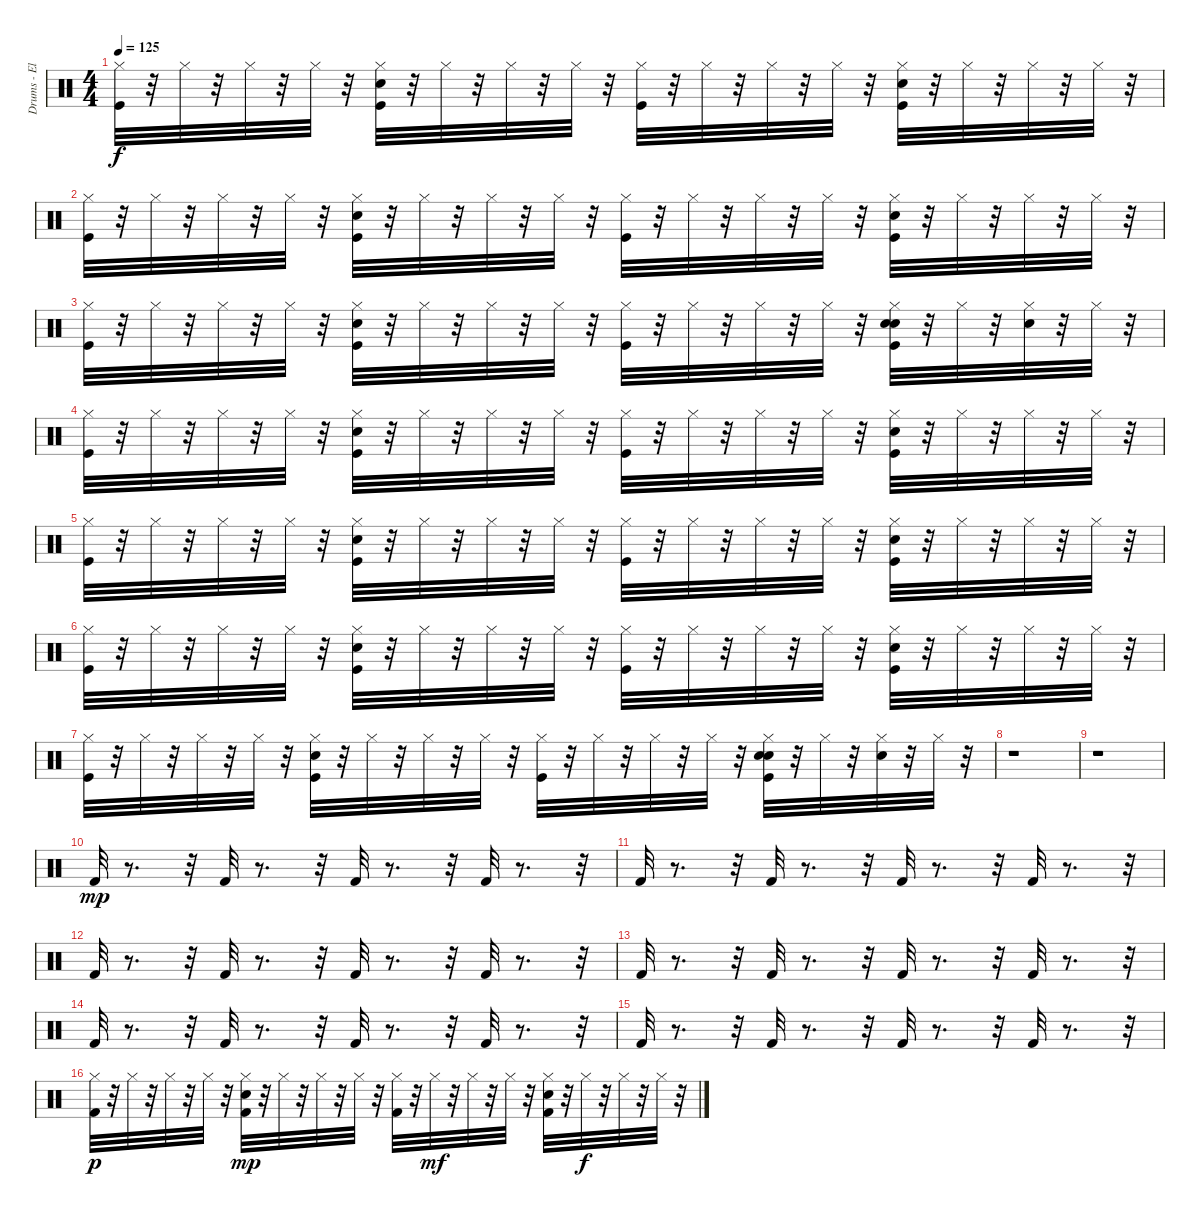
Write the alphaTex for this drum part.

\track ("Drums - El" "Drums - El") {instrument percussion}
\staff {score}
\articulation defaults
\ts (4 4)
\tempo 125
\clef neutral
\ks c
("Kick (hit)" "Hi-Hat (closed)").32{dy f} r.32 "Hi-Hat (closed)".32 r.32 "Hi-Hat (closed)".32 r.32 "Hi-Hat (closed)".32 r.32 ("Kick (hit)" "Electric Snare (hit)" "Hi-Hat (closed)").32 r.32 "Hi-Hat (closed)".32 r.32 "Hi-Hat (closed)".32 r.32 "Hi-Hat (closed)".32 r.32 ("Kick (hit)" "Hi-Hat (closed)").32 r.32 "Hi-Hat (closed)".32 r.32 "Hi-Hat (closed)".32 r.32 "Hi-Hat (closed)".32 r.32 ("Kick (hit)" "Electric Snare (hit)" "Hi-Hat (closed)").32 r.32 "Hi-Hat (closed)".32 r.32 "Hi-Hat (closed)".32 r.32 "Hi-Hat (closed)".32 r.32 |
("Kick (hit)" "Hi-Hat (closed)").32 r.32 "Hi-Hat (closed)".32 r.32 "Hi-Hat (closed)".32 r.32 "Hi-Hat (closed)".32 r.32 ("Kick (hit)" "Electric Snare (hit)" "Hi-Hat (closed)").32 r.32 "Hi-Hat (closed)".32 r.32 "Hi-Hat (closed)".32 r.32 "Hi-Hat (closed)".32 r.32 ("Kick (hit)" "Hi-Hat (closed)").32 r.32 "Hi-Hat (closed)".32 r.32 "Hi-Hat (closed)".32 r.32 "Hi-Hat (closed)".32 r.32 ("Kick (hit)" "Electric Snare (hit)" "Hi-Hat (closed)").32 r.32 "Hi-Hat (closed)".32 r.32 "Hi-Hat (closed)".32 r.32 "Hi-Hat (closed)".32 r.32 |
("Kick (hit)" "Hi-Hat (closed)").32 r.32 "Hi-Hat (closed)".32 r.32 "Hi-Hat (closed)".32 r.32 "Hi-Hat (closed)".32 r.32 ("Kick (hit)" "Electric Snare (hit)" "Hi-Hat (closed)").32 r.32 "Hi-Hat (closed)".32 r.32 "Hi-Hat (closed)".32 r.32 "Hi-Hat (closed)".32 r.32 ("Kick (hit)" "Hi-Hat (closed)").32 r.32 "Hi-Hat (closed)".32 r.32 "Hi-Hat (closed)".32 r.32 "Hi-Hat (closed)".32 r.32 ("Kick (hit)" "Electric Snare (hit)" "Hand Clap (hit)" "Hi-Hat (closed)").32 r.32 "Hi-Hat (closed)".32 r.32 ("Hand Clap (hit)" "Hi-Hat (closed)").32 r.32 "Hi-Hat (closed)".32 r.32 |
("Kick (hit)" "Hi-Hat (closed)").32 r.32 "Hi-Hat (closed)".32 r.32 "Hi-Hat (closed)".32 r.32 "Hi-Hat (closed)".32 r.32 ("Kick (hit)" "Electric Snare (hit)" "Hi-Hat (closed)").32 r.32 "Hi-Hat (closed)".32 r.32 "Hi-Hat (closed)".32 r.32 "Hi-Hat (closed)".32 r.32 ("Kick (hit)" "Hi-Hat (closed)").32 r.32 "Hi-Hat (closed)".32 r.32 "Hi-Hat (closed)".32 r.32 "Hi-Hat (closed)".32 r.32 ("Kick (hit)" "Electric Snare (hit)" "Hi-Hat (closed)").32 r.32 "Hi-Hat (closed)".32 r.32 "Hi-Hat (closed)".32 r.32 "Hi-Hat (closed)".32 r.32 |
("Kick (hit)" "Hi-Hat (closed)").32 r.32 "Hi-Hat (closed)".32 r.32 "Hi-Hat (closed)".32 r.32 "Hi-Hat (closed)".32 r.32 ("Kick (hit)" "Electric Snare (hit)" "Hi-Hat (closed)").32 r.32 "Hi-Hat (closed)".32 r.32 "Hi-Hat (closed)".32 r.32 "Hi-Hat (closed)".32 r.32 ("Kick (hit)" "Hi-Hat (closed)").32 r.32 "Hi-Hat (closed)".32 r.32 "Hi-Hat (closed)".32 r.32 "Hi-Hat (closed)".32 r.32 ("Kick (hit)" "Electric Snare (hit)" "Hi-Hat (closed)").32 r.32 "Hi-Hat (closed)".32 r.32 "Hi-Hat (closed)".32 r.32 "Hi-Hat (closed)".32 r.32 |
("Kick (hit)" "Hi-Hat (closed)").32 r.32 "Hi-Hat (closed)".32 r.32 "Hi-Hat (closed)".32 r.32 "Hi-Hat (closed)".32 r.32 ("Kick (hit)" "Electric Snare (hit)" "Hi-Hat (closed)").32 r.32 "Hi-Hat (closed)".32 r.32 "Hi-Hat (closed)".32 r.32 "Hi-Hat (closed)".32 r.32 ("Kick (hit)" "Hi-Hat (closed)").32 r.32 "Hi-Hat (closed)".32 r.32 "Hi-Hat (closed)".32 r.32 "Hi-Hat (closed)".32 r.32 ("Kick (hit)" "Electric Snare (hit)" "Hi-Hat (closed)").32 r.32 "Hi-Hat (closed)".32 r.32 "Hi-Hat (closed)".32 r.32 "Hi-Hat (closed)".32 r.32 |
("Kick (hit)" "Hi-Hat (closed)").32 r.32 "Hi-Hat (closed)".32 r.32 "Hi-Hat (closed)".32 r.32 "Hi-Hat (closed)".32 r.32 ("Kick (hit)" "Electric Snare (hit)" "Hi-Hat (closed)").32 r.32 "Hi-Hat (closed)".32 r.32 "Hi-Hat (closed)".32 r.32 "Hi-Hat (closed)".32 r.32 ("Kick (hit)" "Hi-Hat (closed)").32 r.32 "Hi-Hat (closed)".32 r.32 "Hi-Hat (closed)".32 r.32 "Hi-Hat (closed)".32 r.32 ("Kick (hit)" "Electric Snare (hit)" "Hand Clap (hit)" "Hi-Hat (closed)").32 r.32 "Hi-Hat (closed)".32 r.32 ("Hand Clap (hit)" "Hi-Hat (closed)").32 r.32 "Hi-Hat (closed)".32 r.32 |
r.1 |
r.1 |
"Kick (hit) 2".32{dy mp} r.8{d} r.32 "Kick (hit) 2".32 r.8{d} r.32 "Kick (hit) 2".32 r.8{d} r.32 "Kick (hit) 2".32 r.8{d} r.32 |
"Kick (hit) 2".32 r.8{d} r.32 "Kick (hit) 2".32 r.8{d} r.32 "Kick (hit) 2".32 r.8{d} r.32 "Kick (hit) 2".32 r.8{d} r.32 |
"Kick (hit) 2".32 r.8{d} r.32 "Kick (hit) 2".32 r.8{d} r.32 "Kick (hit) 2".32 r.8{d} r.32 "Kick (hit) 2".32 r.8{d} r.32 |
"Kick (hit) 2".32 r.8{d} r.32 "Kick (hit) 2".32 r.8{d} r.32 "Kick (hit) 2".32 r.8{d} r.32 "Kick (hit) 2".32 r.8{d} r.32 |
"Kick (hit) 2".32 r.8{d} r.32 "Kick (hit) 2".32 r.8{d} r.32 "Kick (hit) 2".32 r.8{d} r.32 "Kick (hit) 2".32 r.8{d} r.32 |
"Kick (hit) 2".32 r.8{d} r.32 "Kick (hit) 2".32 r.8{d} r.32 "Kick (hit) 2".32 r.8{d} r.32 "Kick (hit) 2".32 r.8{d} r.32 |
("Kick (hit) 2" "Hi-Hat (closed)").32{dy p} r.32 "Hi-Hat (closed)".32 r.32 "Hi-Hat (closed)".32 r.32 "Hi-Hat (closed)".32 r.32 ("Kick (hit) 2" "Electric Snare (hit)" "Hi-Hat (closed)").32{dy mp} r.32 "Hi-Hat (closed)".32 r.32 "Hi-Hat (closed)".32 r.32 "Hi-Hat (closed)".32 r.32 ("Kick (hit) 2" "Hi-Hat (closed)").32 r.32 "Hi-Hat (closed)".32{dy mf} r.32 "Hi-Hat (closed)".32 r.32 "Hi-Hat (closed)".32 r.32 ("Kick (hit) 2" "Electric Snare (hit)" "Hi-Hat (closed)").32 r.32 "Hi-Hat (closed)".32{dy f} r.32 "Hi-Hat (closed)".32 r.32 "Hi-Hat (closed)".32 r.32
